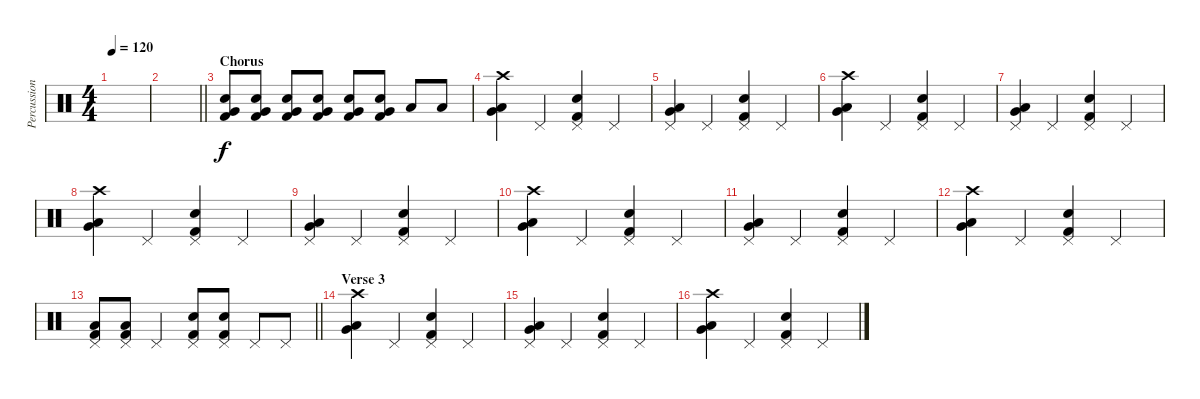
\track ("Percussion" "Percussion") {instrument percussion}
\staff {score}
\articulation defaults
\ts (4 4)
\tempo 120
\clef neutral
\ks c
|
\barLineRight lightlight
|
\section ("" "Chorus")
("Kick (hit) 2" "Snare (hit) 2" "Very Low Tom (hit)").8 ("Kick (hit) 2" "Snare (hit) 2" "Very Low Tom (hit)").8 ("Kick (hit) 2" "Snare (hit) 2" "Very Low Tom (hit)").8 ("Kick (hit) 2" "Snare (hit) 2" "Very Low Tom (hit)").8 ("Kick (hit) 2" "Snare (hit) 2" "Very Low Tom (hit)").8 ("Kick (hit) 2" "Snare (hit) 2" "Very Low Tom (hit)").8 "Low Floor Tom (hit)".8 "Low Floor Tom (hit)".8 |
("Crash high (hit)" "Low Floor Tom (hit)" "Very Low Tom (hit)").4 "Pedal Hi-Hat (hit)".4 ("Pedal Hi-Hat (hit)" "Snare (hit) 2" "Kick (hit) 2").4 "Pedal Hi-Hat (hit)".4 |
("Pedal Hi-Hat (hit)" "Low Floor Tom (hit)" "Very Low Tom (hit)").4 "Pedal Hi-Hat (hit)".4 ("Pedal Hi-Hat (hit)" "Snare (hit) 2" "Kick (hit) 2").4 "Pedal Hi-Hat (hit)".4 |
("Crash high (hit)" "Low Floor Tom (hit)" "Very Low Tom (hit)").4 "Pedal Hi-Hat (hit)".4 ("Pedal Hi-Hat (hit)" "Snare (hit) 2" "Kick (hit) 2").4 "Pedal Hi-Hat (hit)".4 |
("Pedal Hi-Hat (hit)" "Low Floor Tom (hit)" "Very Low Tom (hit)").4 "Pedal Hi-Hat (hit)".4 ("Pedal Hi-Hat (hit)" "Snare (hit) 2" "Kick (hit) 2").4 "Pedal Hi-Hat (hit)".4 |
("Crash high (hit)" "Low Floor Tom (hit)" "Very Low Tom (hit)").4 "Pedal Hi-Hat (hit)".4 ("Pedal Hi-Hat (hit)" "Snare (hit) 2" "Kick (hit) 2").4 "Pedal Hi-Hat (hit)".4 |
("Pedal Hi-Hat (hit)" "Low Floor Tom (hit)" "Very Low Tom (hit)").4 "Pedal Hi-Hat (hit)".4 ("Pedal Hi-Hat (hit)" "Snare (hit) 2" "Kick (hit) 2").4 "Pedal Hi-Hat (hit)".4 |
("Crash high (hit)" "Low Floor Tom (hit)" "Very Low Tom (hit)").4 "Pedal Hi-Hat (hit)".4 ("Pedal Hi-Hat (hit)" "Snare (hit) 2" "Kick (hit) 2").4 "Pedal Hi-Hat (hit)".4 |
("Pedal Hi-Hat (hit)" "Low Floor Tom (hit)" "Very Low Tom (hit)").4 "Pedal Hi-Hat (hit)".4 ("Pedal Hi-Hat (hit)" "Snare (hit) 2" "Kick (hit) 2").4 "Pedal Hi-Hat (hit)".4 |
("Crash high (hit)" "Low Floor Tom (hit)" "Very Low Tom (hit)").4 "Pedal Hi-Hat (hit)".4 ("Pedal Hi-Hat (hit)" "Snare (hit) 2" "Kick (hit) 2").4 "Pedal Hi-Hat (hit)".4 |
\barLineRight lightlight
("Pedal Hi-Hat (hit)" "Low Floor Tom (hit)" "Kick (hit) 2").8 ("Pedal Hi-Hat (hit)" "Low Floor Tom (hit)" "Kick (hit) 2").8 "Pedal Hi-Hat (hit)".4 ("Pedal Hi-Hat (hit)" "Snare (hit) 2" "Kick (hit) 2").8 ("Pedal Hi-Hat (hit)" "Snare (hit) 2" "Kick (hit) 2").8 "Pedal Hi-Hat (hit)".8 "Pedal Hi-Hat (hit)".8 |
\section ("" "Verse 3")
("Crash high (hit)" "Low Floor Tom (hit)" "Very Low Tom (hit)").4 "Pedal Hi-Hat (hit)".4 ("Pedal Hi-Hat (hit)" "Snare (hit) 2" "Kick (hit) 2").4 "Pedal Hi-Hat (hit)".4 |
("Pedal Hi-Hat (hit)" "Low Floor Tom (hit)" "Very Low Tom (hit)").4 "Pedal Hi-Hat (hit)".4 ("Pedal Hi-Hat (hit)" "Snare (hit) 2" "Kick (hit) 2").4 "Pedal Hi-Hat (hit)".4 |
("Crash high (hit)" "Low Floor Tom (hit)" "Very Low Tom (hit)").4 "Pedal Hi-Hat (hit)".4 ("Pedal Hi-Hat (hit)" "Snare (hit) 2" "Kick (hit) 2").4 "Pedal Hi-Hat (hit)".4
